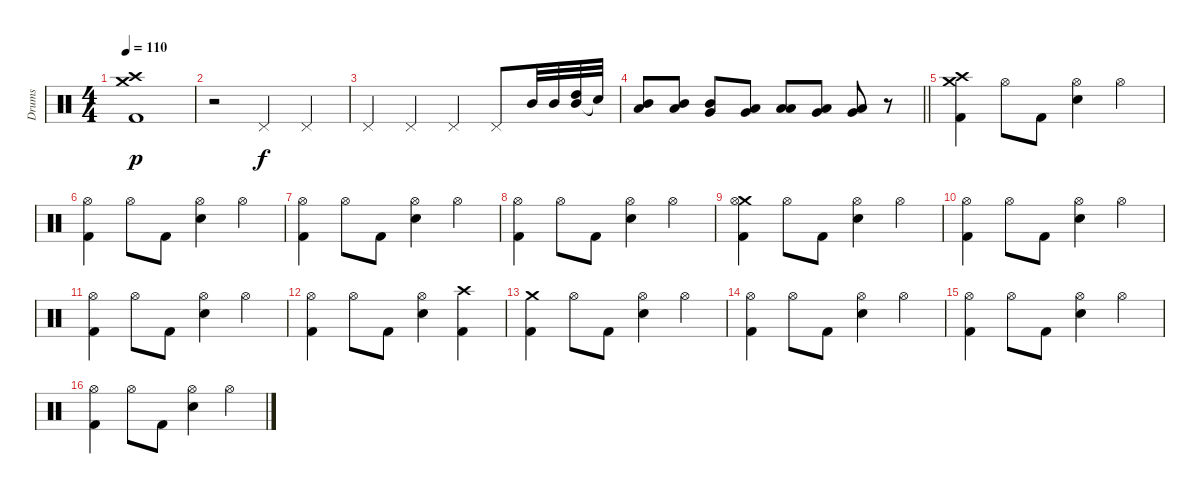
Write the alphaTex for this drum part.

\track ("Drums" "Drums") {instrument percussion}
\staff {score}
\articulation defaults
\ts (4 4)
\tempo 110
\clef neutral
\ks c
("Crash medium (hit)" "Crash high (hit)" "Kick (hit) 2").1{dy p} |
r.2 "Pedal Hi-Hat (hit)".4{dy f} "Pedal Hi-Hat (hit)".4 |
"Pedal Hi-Hat (hit)".4 "Pedal Hi-Hat (hit)".4 "Pedal Hi-Hat (hit)".4 "Pedal Hi-Hat (hit)".8 "Mid Tom (hit)".32 "Mid Tom (hit)".32 ("Mid Tom (hit)" "High Tom (hit)").32 "Snare (hit)"{t}.32 |
\barLineRight lightlight
("Mid Tom (hit)" "Low Tom (hit)").8 ("Low Tom (hit)" "Mid Tom (hit)").8 ("Mid Tom (hit)" "Very Low Tom (hit)").8 ("Low Tom (hit)" "Very Low Tom (hit)").8 ("Low Tom (hit)" "Low Floor Tom (hit)").8 ("Very Low Tom (hit)" "Low Floor Tom (hit)").8 ("Very Low Tom (hit)" "Low Floor Tom (hit)").8 r.8 |
("Crash high (hit)" "Crash medium (hit)" "Kick (hit) 2").4 "Hi-Hat (open)".8 "Kick (hit) 2".8 ("Hi-Hat (open)" "Snare (hit) 2").4 "Hi-Hat (open)".4 |
("Hi-Hat (open)" "Kick (hit) 2").4 "Hi-Hat (open)".8 "Kick (hit) 2".8 ("Hi-Hat (open)" "Snare (hit) 2").4 "Hi-Hat (open)".4 |
("Hi-Hat (open)" "Kick (hit) 2").4 "Hi-Hat (open)".8 "Kick (hit) 2".8 ("Hi-Hat (open)" "Snare (hit) 2").4 "Hi-Hat (open)".4 |
("Hi-Hat (open)" "Kick (hit) 2").4 "Hi-Hat (open)".8 "Kick (hit) 2".8 ("Hi-Hat (open)" "Snare (hit) 2").4 "Hi-Hat (open)".4 |
("Crash medium (hit)" "Hi-Hat (open)" "Kick (hit) 2").4 "Hi-Hat (open)".8 "Kick (hit) 2".8 ("Hi-Hat (open)" "Snare (hit) 2").4 "Hi-Hat (open)".4 |
("Hi-Hat (open)" "Kick (hit) 2").4 "Hi-Hat (open)".8 "Kick (hit) 2".8 ("Hi-Hat (open)" "Snare (hit) 2").4 "Hi-Hat (open)".4 |
("Hi-Hat (open)" "Kick (hit) 2").4 "Hi-Hat (open)".8 "Kick (hit) 2".8 ("Hi-Hat (open)" "Snare (hit) 2").4 "Hi-Hat (open)".4 |
("Hi-Hat (open)" "Kick (hit) 2").4 "Hi-Hat (open)".8 "Kick (hit) 2".8 ("Hi-Hat (open)" "Snare (hit) 2").4 ("Crash high (hit)" "Kick (hit) 2").4 |
("Crash medium (hit)" "Kick (hit) 2").4 "Hi-Hat (open)".8 "Kick (hit) 2".8 ("Hi-Hat (open)" "Snare (hit) 2").4 "Hi-Hat (open)".4 |
("Hi-Hat (open)" "Kick (hit) 2").4 "Hi-Hat (open)".8 "Kick (hit) 2".8 ("Hi-Hat (open)" "Snare (hit) 2").4 "Hi-Hat (open)".4 |
("Hi-Hat (open)" "Kick (hit) 2").4 "Hi-Hat (open)".8 "Kick (hit) 2".8 ("Hi-Hat (open)" "Snare (hit) 2").4 "Hi-Hat (open)".4 |
("Hi-Hat (open)" "Kick (hit) 2").4 "Hi-Hat (open)".8 "Kick (hit) 2".8 ("Hi-Hat (open)" "Snare (hit) 2").4 "Hi-Hat (open)".4
